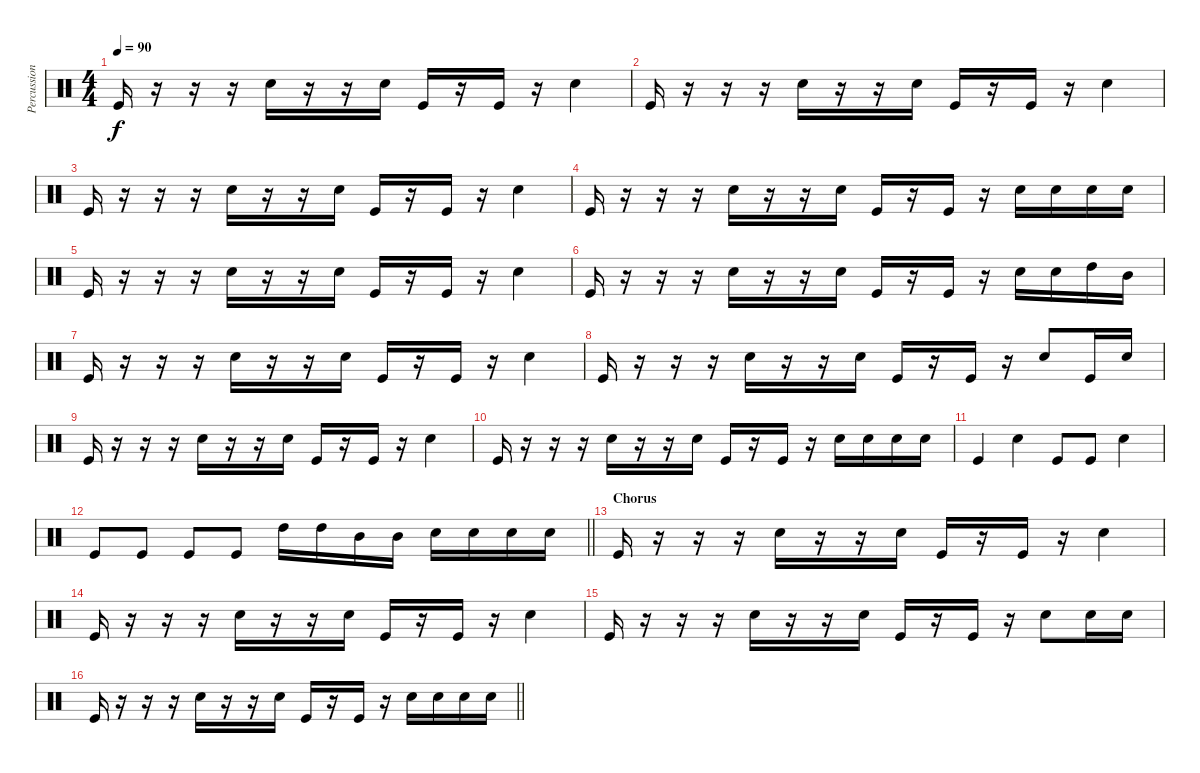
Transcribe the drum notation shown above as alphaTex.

\track ("Percussion" "Percussion") {instrument percussion}
\staff
\articulation defaults
\ts (4 4)
\tempo 90
\clef neutral
\ks c "Kick (hit)".16{dy f}
r.16 r.16 r.16 "Electric Snare (hit)".16 r.16 r.16 "Electric Snare (hit)".16 "Kick (hit)".16 r.16 "Kick (hit)".16 r.16 "Electric Snare (hit)".4 |
"Kick (hit)".16 r.16 r.16 r.16 "Electric Snare (hit)".16 r.16 r.16 "Electric Snare (hit)".16 "Kick (hit)".16 r.16 "Kick (hit)".16 r.16 "Electric Snare (hit)".4 |
"Kick (hit)".16 r.16 r.16 r.16 "Electric Snare (hit)".16 r.16 r.16 "Electric Snare (hit)".16 "Kick (hit)".16 r.16 "Kick (hit)".16 r.16 "Electric Snare (hit)".4 |
"Kick (hit)".16 r.16 r.16 r.16 "Electric Snare (hit)".16 r.16 r.16 "Electric Snare (hit)".16 "Kick (hit)".16 r.16 "Kick (hit)".16 r.16 "Electric Snare (hit)".16 "Electric Snare (hit)".16 "Electric Snare (hit)".16 "Electric Snare (hit)".16 |
"Kick (hit)".16 r.16 r.16 r.16 "Electric Snare (hit)".16 r.16 r.16 "Electric Snare (hit)".16 "Kick (hit)".16 r.16 "Kick (hit)".16 r.16 "Electric Snare (hit)".4 |
"Kick (hit)".16 r.16 r.16 r.16 "Electric Snare (hit)".16 r.16 r.16 "Electric Snare (hit)".16 "Kick (hit)".16 r.16 "Kick (hit)".16 r.16 "Electric Snare (hit)".16 "Electric Snare (hit)".16 "High Tom (hit)".16 "Mid Tom (hit)".16 |
"Kick (hit)".16 r.16 r.16 r.16 "Electric Snare (hit)".16 r.16 r.16 "Electric Snare (hit)".16 "Kick (hit)".16 r.16 "Kick (hit)".16 r.16 "Electric Snare (hit)".4 |
"Kick (hit)".16 r.16 r.16 r.16 "Electric Snare (hit)".16 r.16 r.16 "Electric Snare (hit)".16 "Kick (hit)".16 r.16 "Kick (hit)".16 r.16 "Electric Snare (hit)".8 "Kick (hit)".16 "Electric Snare (hit)".16 |
"Kick (hit)".16 r.16 r.16 r.16 "Electric Snare (hit)".16 r.16 r.16 "Electric Snare (hit)".16 "Kick (hit)".16 r.16 "Kick (hit)".16 r.16 "Electric Snare (hit)".4 |
"Kick (hit)".16 r.16 r.16 r.16 "Electric Snare (hit)".16 r.16 r.16 "Electric Snare (hit)".16 "Kick (hit)".16 r.16 "Kick (hit)".16 r.16 "Electric Snare (hit)".16 "Electric Snare (hit)".16 "Electric Snare (hit)".16 "Electric Snare (hit)".16 |
"Kick (hit)".4 "Electric Snare (hit)".4 "Kick (hit)".8 "Kick (hit)".8 "Electric Snare (hit)".4 |
\barLineRight lightlight "Kick (hit)".8 "Kick (hit)".8 "Kick (hit)".8 "Kick (hit)".8 "High Tom (hit)".16 "High Tom (hit)".16 "Mid Tom (hit)".16 "Mid Tom (hit)".16 "Electric Snare (hit)".16 "Electric Snare (hit)".16 "Electric Snare (hit)".16 "Electric Snare (hit)".16
|
\section ("" "Chorus")
"Kick (hit)".16 r.16 r.16 r.16 "Electric Snare (hit)".16 r.16 r.16 "Electric Snare (hit)".16 "Kick (hit)".16 r.16 "Kick (hit)".16 r.16 "Electric Snare (hit)".4 |
"Kick (hit)".16 r.16 r.16 r.16 "Electric Snare (hit)".16 r.16 r.16 "Electric Snare (hit)".16 "Kick (hit)".16 r.16 "Kick (hit)".16 r.16 "Electric Snare (hit)".4 |
"Kick (hit)".16 r.16 r.16 r.16 "Electric Snare (hit)".16 r.16 r.16 "Electric Snare (hit)".16 "Kick (hit)".16 r.16 "Kick (hit)".16 r.16 "Electric Snare (hit)".8 "Electric Snare (hit)".16 "Electric Snare (hit)".16 |
\barLineRight lightlight "Kick (hit)".16
r.16 r.16 r.16 "Electric Snare (hit)".16 r.16 r.16 "Electric Snare (hit)".16 "Kick (hit)".16 r.16 "Kick (hit)".16 r.16 "Electric Snare (hit)".16 "Electric Snare (hit)".16 "Electric Snare (hit)".16 "Electric Snare (hit)".16
